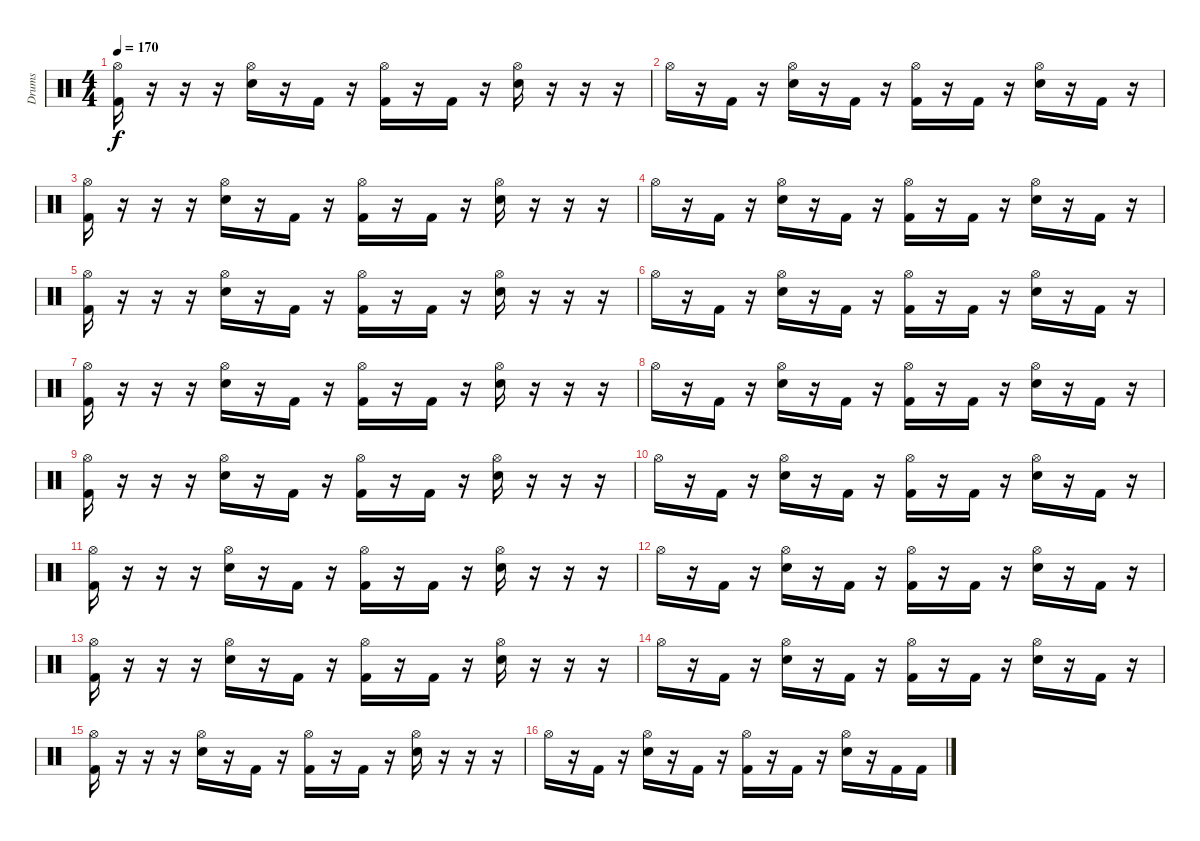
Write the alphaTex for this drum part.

\track ("Drums" "Drums") {instrument percussion}
\staff {score}
\articulation defaults
\ts (4 4)
\tempo 170
\clef neutral
\ks c
("Hi-Hat (open)" "Kick (hit) 2").16{dy f} r.16 r.16 r.16 ("Hi-Hat (open)" "Snare (hit) 2").16 r.16 "Kick (hit) 2".16 r.16 ("Hi-Hat (open)" "Kick (hit) 2").16 r.16 "Kick (hit) 2".16 r.16 ("Hi-Hat (open)" "Snare (hit) 2").16 r.16 r.16 r.16 |
"Hi-Hat (open)".16 r.16 "Kick (hit) 2".16 r.16 ("Hi-Hat (open)" "Snare (hit) 2").16 r.16 "Kick (hit) 2".16 r.16 ("Hi-Hat (open)" "Kick (hit) 2").16 r.16 "Kick (hit) 2".16 r.16 ("Hi-Hat (open)" "Snare (hit) 2").16 r.16 "Kick (hit) 2".16 r.16 |
("Hi-Hat (open)" "Kick (hit) 2").16 r.16 r.16 r.16 ("Hi-Hat (open)" "Snare (hit) 2").16 r.16 "Kick (hit) 2".16 r.16 ("Hi-Hat (open)" "Kick (hit) 2").16 r.16 "Kick (hit) 2".16 r.16 ("Hi-Hat (open)" "Snare (hit) 2").16 r.16 r.16 r.16 |
"Hi-Hat (open)".16 r.16 "Kick (hit) 2".16 r.16 ("Hi-Hat (open)" "Snare (hit) 2").16 r.16 "Kick (hit) 2".16 r.16 ("Hi-Hat (open)" "Kick (hit) 2").16 r.16 "Kick (hit) 2".16 r.16 ("Hi-Hat (open)" "Snare (hit) 2").16 r.16 "Kick (hit) 2".16 r.16 |
("Hi-Hat (open)" "Kick (hit) 2").16 r.16 r.16 r.16 ("Hi-Hat (open)" "Snare (hit) 2").16 r.16 "Kick (hit) 2".16 r.16 ("Hi-Hat (open)" "Kick (hit) 2").16 r.16 "Kick (hit) 2".16 r.16 ("Hi-Hat (open)" "Snare (hit) 2").16 r.16 r.16 r.16 |
"Hi-Hat (open)".16 r.16 "Kick (hit) 2".16 r.16 ("Hi-Hat (open)" "Snare (hit) 2").16 r.16 "Kick (hit) 2".16 r.16 ("Hi-Hat (open)" "Kick (hit) 2").16 r.16 "Kick (hit) 2".16 r.16 ("Hi-Hat (open)" "Snare (hit) 2").16 r.16 "Kick (hit) 2".16 r.16 |
("Hi-Hat (open)" "Kick (hit) 2").16 r.16 r.16 r.16 ("Hi-Hat (open)" "Snare (hit) 2").16 r.16 "Kick (hit) 2".16 r.16 ("Hi-Hat (open)" "Kick (hit) 2").16 r.16 "Kick (hit) 2".16 r.16 ("Hi-Hat (open)" "Snare (hit) 2").16 r.16 r.16 r.16 |
"Hi-Hat (open)".16 r.16 "Kick (hit) 2".16 r.16 ("Hi-Hat (open)" "Snare (hit) 2").16 r.16 "Kick (hit) 2".16 r.16 ("Hi-Hat (open)" "Kick (hit) 2").16 r.16 "Kick (hit) 2".16 r.16 ("Hi-Hat (open)" "Snare (hit) 2").16 r.16 "Kick (hit) 2".16 r.16 |
("Hi-Hat (open)" "Kick (hit) 2").16 r.16 r.16 r.16 ("Hi-Hat (open)" "Snare (hit) 2").16 r.16 "Kick (hit) 2".16 r.16 ("Hi-Hat (open)" "Kick (hit) 2").16 r.16 "Kick (hit) 2".16 r.16 ("Hi-Hat (open)" "Snare (hit) 2").16 r.16 r.16 r.16 |
"Hi-Hat (open)".16 r.16 "Kick (hit) 2".16 r.16 ("Hi-Hat (open)" "Snare (hit) 2").16 r.16 "Kick (hit) 2".16 r.16 ("Hi-Hat (open)" "Kick (hit) 2").16 r.16 "Kick (hit) 2".16 r.16 ("Hi-Hat (open)" "Snare (hit) 2").16 r.16 "Kick (hit) 2".16 r.16 |
("Hi-Hat (open)" "Kick (hit) 2").16 r.16 r.16 r.16 ("Hi-Hat (open)" "Snare (hit) 2").16 r.16 "Kick (hit) 2".16 r.16 ("Hi-Hat (open)" "Kick (hit) 2").16 r.16 "Kick (hit) 2".16 r.16 ("Hi-Hat (open)" "Snare (hit) 2").16 r.16 r.16 r.16 |
"Hi-Hat (open)".16 r.16 "Kick (hit) 2".16 r.16 ("Hi-Hat (open)" "Snare (hit) 2").16 r.16 "Kick (hit) 2".16 r.16 ("Hi-Hat (open)" "Kick (hit) 2").16 r.16 "Kick (hit) 2".16 r.16 ("Hi-Hat (open)" "Snare (hit) 2").16 r.16 "Kick (hit) 2".16 r.16 |
("Hi-Hat (open)" "Kick (hit) 2").16 r.16 r.16 r.16 ("Hi-Hat (open)" "Snare (hit) 2").16 r.16 "Kick (hit) 2".16 r.16 ("Hi-Hat (open)" "Kick (hit) 2").16 r.16 "Kick (hit) 2".16 r.16 ("Hi-Hat (open)" "Snare (hit) 2").16 r.16 r.16 r.16 |
"Hi-Hat (open)".16 r.16 "Kick (hit) 2".16 r.16 ("Hi-Hat (open)" "Snare (hit) 2").16 r.16 "Kick (hit) 2".16 r.16 ("Hi-Hat (open)" "Kick (hit) 2").16 r.16 "Kick (hit) 2".16 r.16 ("Hi-Hat (open)" "Snare (hit) 2").16 r.16 "Kick (hit) 2".16 r.16 |
("Hi-Hat (open)" "Kick (hit) 2").16 r.16 r.16 r.16 ("Hi-Hat (open)" "Snare (hit) 2").16 r.16 "Kick (hit) 2".16 r.16 ("Hi-Hat (open)" "Kick (hit) 2").16 r.16 "Kick (hit) 2".16 r.16 ("Hi-Hat (open)" "Snare (hit) 2").16 r.16 r.16 r.16 |
"Hi-Hat (open)".16 r.16 "Kick (hit) 2".16 r.16 ("Hi-Hat (open)" "Snare (hit) 2").16 r.16 "Kick (hit) 2".16 r.16 ("Hi-Hat (open)" "Kick (hit) 2").16 r.16 "Kick (hit) 2".16 r.16 ("Hi-Hat (open)" "Snare (hit) 2").16 r.16 "Kick (hit) 2".16 "Kick (hit) 2".16
